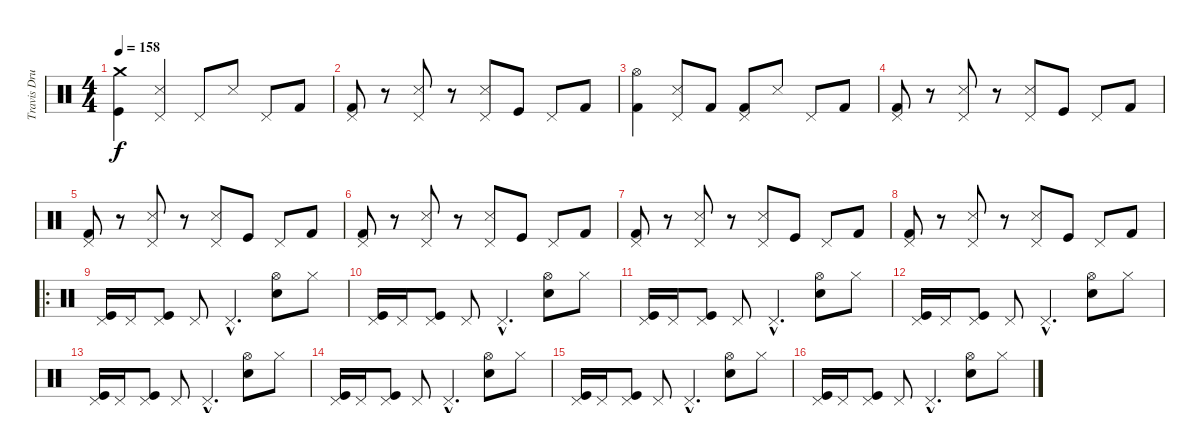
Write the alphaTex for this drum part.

\track ("Travis Drums" "Travis Dru") {instrument percussion}
\staff {score}
\articulation defaults
\ts (4 4)
\tempo 158
\clef neutral
\ks c
("Crash medium (hit)" "Kick (hit)").4{dy f} ("Pedal Hi-Hat (hit)" "Snare (side stick) 3").4 "Pedal Hi-Hat (hit)".8 "Snare (side stick) 3".8 "Pedal Hi-Hat (hit)".8 "Kick (hit) 2".8 |
("Pedal Hi-Hat (hit)" "Kick (hit) 2").8 r.8 ("Pedal Hi-Hat (hit)" "Snare (side stick) 3").8 r.8 ("Pedal Hi-Hat (hit)" "Snare (side stick) 3").8 "Kick (hit)".8 "Pedal Hi-Hat (hit)".8 "Kick (hit) 2".8 |
("Hi-Hat (open)" "Kick (hit) 2").4 ("Pedal Hi-Hat (hit)" "Snare (side stick) 3").8 "Kick (hit) 2".8 ("Pedal Hi-Hat (hit)" "Kick (hit) 2").8 "Snare (side stick) 3".8 "Pedal Hi-Hat (hit)".8 "Kick (hit) 2".8 |
("Pedal Hi-Hat (hit)" "Kick (hit) 2").8 r.8 ("Pedal Hi-Hat (hit)" "Snare (side stick) 3").8 r.8 ("Pedal Hi-Hat (hit)" "Snare (side stick) 3").8 "Kick (hit)".8 "Pedal Hi-Hat (hit)".8 "Kick (hit) 2".8 |
("Pedal Hi-Hat (hit)" "Kick (hit) 2").8 r.8 ("Pedal Hi-Hat (hit)" "Snare (side stick) 3").8 r.8 ("Pedal Hi-Hat (hit)" "Snare (side stick) 3").8 "Kick (hit)".8 "Pedal Hi-Hat (hit)".8 "Kick (hit) 2".8 |
("Pedal Hi-Hat (hit)" "Kick (hit) 2").8 r.8 ("Pedal Hi-Hat (hit)" "Snare (side stick) 3").8 r.8 ("Pedal Hi-Hat (hit)" "Snare (side stick) 3").8 "Kick (hit)".8 "Pedal Hi-Hat (hit)".8 "Kick (hit) 2".8 |
("Pedal Hi-Hat (hit)" "Kick (hit) 2").8 r.8 ("Pedal Hi-Hat (hit)" "Snare (side stick) 3").8 r.8 ("Pedal Hi-Hat (hit)" "Snare (side stick) 3").8 "Kick (hit)".8 "Pedal Hi-Hat (hit)".8 "Kick (hit) 2".8 |
("Pedal Hi-Hat (hit)" "Kick (hit) 2").8 r.8 ("Pedal Hi-Hat (hit)" "Snare (side stick) 3").8 r.8 ("Pedal Hi-Hat (hit)" "Snare (side stick) 3").8 "Kick (hit)".8 "Pedal Hi-Hat (hit)".8 "Kick (hit) 2".8 |
\ro
("Pedal Hi-Hat (hit)" "Kick (hit)").16 "Pedal Hi-Hat (hit)".16 ("Pedal Hi-Hat (hit)" "Kick (hit)").8 "Pedal Hi-Hat (hit)".8 "Pedal Hi-Hat (hit)"{hac}.4{d} ("Snare (hit) 2" "Hi-Hat (open)").8 "Hi-Hat (closed)".8 |
("Pedal Hi-Hat (hit)" "Kick (hit)").16 "Pedal Hi-Hat (hit)".16 ("Pedal Hi-Hat (hit)" "Kick (hit)").8 "Pedal Hi-Hat (hit)".8 "Pedal Hi-Hat (hit)"{hac}.4{d} ("Snare (hit) 2" "Hi-Hat (open)").8 "Hi-Hat (closed)".8 |
("Pedal Hi-Hat (hit)" "Kick (hit)").16 "Pedal Hi-Hat (hit)".16 ("Pedal Hi-Hat (hit)" "Kick (hit)").8 "Pedal Hi-Hat (hit)".8 "Pedal Hi-Hat (hit)"{hac}.4{d} ("Snare (hit) 2" "Hi-Hat (open)").8 "Hi-Hat (closed)".8 |
("Pedal Hi-Hat (hit)" "Kick (hit)").16 "Pedal Hi-Hat (hit)".16 ("Pedal Hi-Hat (hit)" "Kick (hit)").8 "Pedal Hi-Hat (hit)".8 "Pedal Hi-Hat (hit)"{hac}.4{d} ("Snare (hit) 2" "Hi-Hat (open)").8 "Hi-Hat (closed)".8 |
("Pedal Hi-Hat (hit)" "Kick (hit)").16 "Pedal Hi-Hat (hit)".16 ("Pedal Hi-Hat (hit)" "Kick (hit)").8 "Pedal Hi-Hat (hit)".8 "Pedal Hi-Hat (hit)"{hac}.4{d} ("Snare (hit) 2" "Hi-Hat (open)").8 "Hi-Hat (closed)".8 |
("Pedal Hi-Hat (hit)" "Kick (hit)").16 "Pedal Hi-Hat (hit)".16 ("Pedal Hi-Hat (hit)" "Kick (hit)").8 "Pedal Hi-Hat (hit)".8 "Pedal Hi-Hat (hit)"{hac}.4{d} ("Snare (hit) 2" "Hi-Hat (open)").8 "Hi-Hat (closed)".8 |
("Pedal Hi-Hat (hit)" "Kick (hit)").16 "Pedal Hi-Hat (hit)".16 ("Pedal Hi-Hat (hit)" "Kick (hit)").8 "Pedal Hi-Hat (hit)".8 "Pedal Hi-Hat (hit)"{hac}.4{d} ("Snare (hit) 2" "Hi-Hat (open)").8 "Hi-Hat (closed)".8 |
("Pedal Hi-Hat (hit)" "Kick (hit)").16 "Pedal Hi-Hat (hit)".16 ("Pedal Hi-Hat (hit)" "Kick (hit)").8 "Pedal Hi-Hat (hit)".8 "Pedal Hi-Hat (hit)"{hac}.4{d} ("Snare (hit) 2" "Hi-Hat (open)").8 "Hi-Hat (closed)".8
